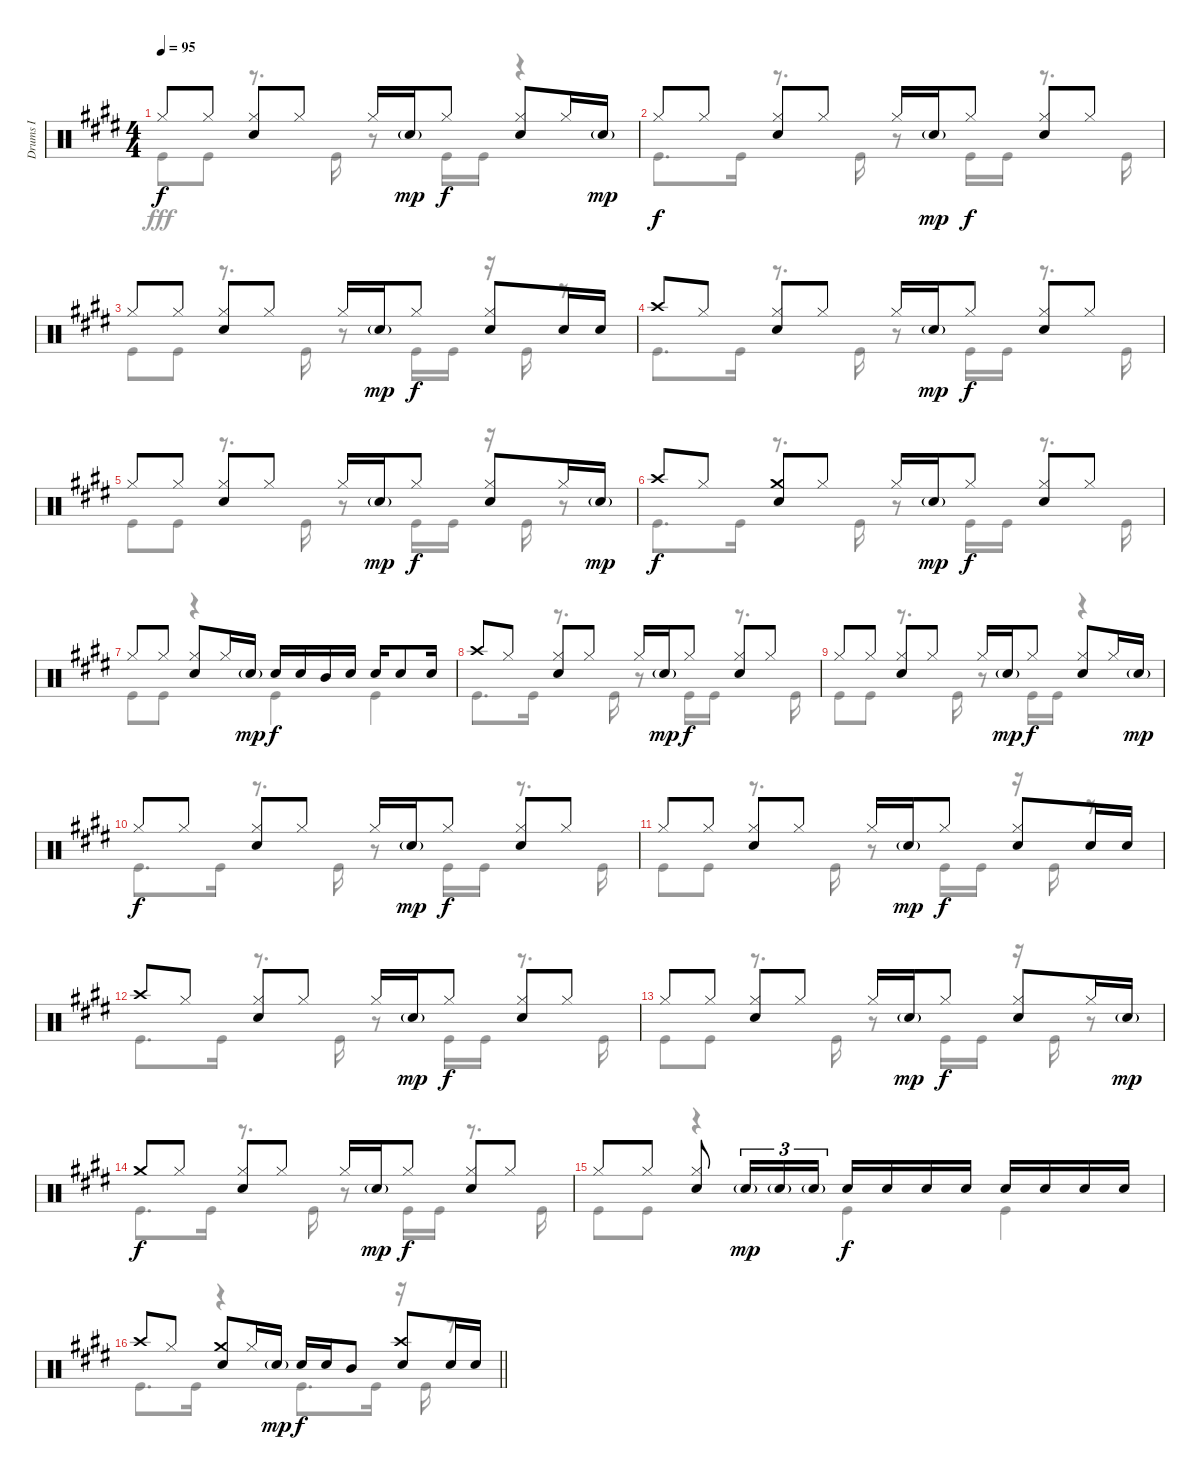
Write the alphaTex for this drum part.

\track ("Drums I" "Drums I") {instrument percussion}
\staff {score}
\articulation defaults
\voice
\ts (4 4)
\tempo 95
\clef neutral
\ks e "Hi-Hat (closed)".8{dy f} "Hi-Hat (closed)".8
("Hi-Hat (closed)" "Snare (hit) 2").8 "Hi-Hat (closed)".8 "Hi-Hat (closed)".16 "Snare (hit) 2"{g}.16{dy mp} "Hi-Hat (closed)".8{dy f} ("Snare (hit) 2" "Hi-Hat (closed)").8 "Hi-Hat (closed)".16 "Snare (hit) 2"{g}.16{dy mp} |
"Hi-Hat (closed)".8{dy f} "Hi-Hat (closed)".8 ("Hi-Hat (closed)" "Snare (hit) 2").8 "Hi-Hat (closed)".8 "Hi-Hat (closed)".16 "Snare (hit) 2"{g}.16{dy mp} "Hi-Hat (closed)".8{dy f} ("Snare (hit) 2" "Hi-Hat (closed)").8 "Hi-Hat (closed)".8 |
"Hi-Hat (closed)".8 "Hi-Hat (closed)".8 ("Hi-Hat (closed)" "Snare (hit) 2").8 "Hi-Hat (closed)".8 "Hi-Hat (closed)".16 "Snare (hit) 2"{g}.16{dy mp} "Hi-Hat (closed)".8{dy f} ("Snare (hit) 2" "Hi-Hat (closed)").8 "Snare (hit) 2".16 "Snare (hit) 2".16 |
"Crash high (hit)".8 "Hi-Hat (closed)".8 ("Hi-Hat (closed)" "Snare (hit) 2").8 "Hi-Hat (closed)".8 "Hi-Hat (closed)".16 "Snare (hit) 2"{g}.16{dy mp} "Hi-Hat (closed)".8{dy f} ("Snare (hit) 2" "Hi-Hat (closed)").8 "Hi-Hat (closed)".8 |
"Hi-Hat (closed)".8 "Hi-Hat (closed)".8 ("Hi-Hat (closed)" "Snare (hit) 2").8 "Hi-Hat (closed)".8 "Hi-Hat (closed)".16 "Snare (hit) 2"{g}.16{dy mp} "Hi-Hat (closed)".8{dy f} ("Snare (hit) 2" "Hi-Hat (closed)").8 "Hi-Hat (closed)".16 "Snare (hit) 2"{g}.16{dy mp} |
"Crash high (hit)".8{dy f} "Hi-Hat (closed)".8 ("Crash medium (hit)" "Snare (hit) 2").8 "Hi-Hat (closed)".8 "Hi-Hat (closed)".16 "Snare (hit) 2"{g}.16{dy mp} "Hi-Hat (closed)".8{dy f} ("Snare (hit) 2" "Hi-Hat (closed)").8 "Hi-Hat (closed)".8 |
"Hi-Hat (closed)".8 "Hi-Hat (closed)".8 ("Hi-Hat (closed)" "Snare (hit) 2").8 "Hi-Hat (closed)".16 "Snare (hit) 2"{g}.16{dy mp} "Snare (hit) 2".16{dy f} "Snare (hit) 2".16 "Mid Tom (hit)".16 "Snare (hit) 2".16 "Snare (hit) 2".16 "Snare (hit) 2".8 "Snare (hit) 2".16 |
"Crash high (hit)".8 "Hi-Hat (closed)".8 ("Hi-Hat (closed)" "Snare (hit) 2").8 "Hi-Hat (closed)".8 "Hi-Hat (closed)".16 "Snare (hit) 2"{g}.16{dy mp} "Hi-Hat (closed)".8{dy f} ("Snare (hit) 2" "Hi-Hat (closed)").8 "Hi-Hat (closed)".8 |
"Hi-Hat (closed)".8 "Hi-Hat (closed)".8 ("Hi-Hat (closed)" "Snare (hit) 2").8 "Hi-Hat (closed)".8 "Hi-Hat (closed)".16 "Snare (hit) 2"{g}.16{dy mp} "Hi-Hat (closed)".8{dy f} ("Snare (hit) 2" "Hi-Hat (closed)").8 "Hi-Hat (closed)".16 "Snare (hit) 2"{g}.16{dy mp} |
"Hi-Hat (closed)".8{dy f} "Hi-Hat (closed)".8 ("Hi-Hat (closed)" "Snare (hit) 2").8 "Hi-Hat (closed)".8 "Hi-Hat (closed)".16 "Snare (hit) 2"{g}.16{dy mp} "Hi-Hat (closed)".8{dy f} ("Snare (hit) 2" "Hi-Hat (closed)").8 "Hi-Hat (closed)".8 |
"Hi-Hat (closed)".8 "Hi-Hat (closed)".8 ("Hi-Hat (closed)" "Snare (hit) 2").8 "Hi-Hat (closed)".8 "Hi-Hat (closed)".16 "Snare (hit) 2"{g}.16{dy mp} "Hi-Hat (closed)".8{dy f} ("Hi-Hat (closed)" "Snare (hit) 2").8 "Snare (hit) 2".16 "Snare (hit) 2".16 |
"Crash high (hit)".8 "Hi-Hat (closed)".8 ("Hi-Hat (closed)" "Snare (hit) 2").8 "Hi-Hat (closed)".8 "Hi-Hat (closed)".16 "Snare (hit) 2"{g}.16{dy mp} "Hi-Hat (closed)".8{dy f} ("Hi-Hat (closed)" "Snare (hit) 2").8 "Hi-Hat (closed)".8 |
"Hi-Hat (closed)".8 "Hi-Hat (closed)".8 ("Hi-Hat (closed)" "Snare (hit) 2").8 "Hi-Hat (closed)".8 "Hi-Hat (closed)".16 "Snare (hit) 2"{g}.16{dy mp} "Hi-Hat (closed)".8{dy f} ("Hi-Hat (closed)" "Snare (hit) 2").8 "Hi-Hat (closed)".16 "Snare (hit) 2"{g}.16{dy mp} |
"Crash medium (hit)".8{dy f} "Hi-Hat (closed)".8 ("Hi-Hat (closed)" "Snare (hit) 2").8 "Hi-Hat (closed)".8 "Hi-Hat (closed)".16 "Snare (hit) 2"{g}.16{dy mp} "Hi-Hat (closed)".8{dy f} ("Hi-Hat (closed)" "Snare (hit) 2").8 "Hi-Hat (closed)".8 |
"Hi-Hat (closed)".8 "Hi-Hat (closed)".8 ("Hi-Hat (closed)" "Snare (hit) 2").8 "Snare (hit) 2"{g}.16{tu (3 2) dy mp} "Snare (hit) 2"{g}.16{tu (3 2)} "Snare (hit) 2"{g}.16{tu (3 2)} "Snare (hit) 2".16{dy f} "Snare (hit) 2".16 "Snare (hit) 2".16 "Snare (hit) 2".16 "Snare (hit) 2".16 "Snare (hit) 2".16 "Snare (hit) 2".16 "Snare (hit) 2".16 |
\barLineRight lightlight "Crash high (hit)".8 "Hi-Hat (closed)".8
("Crash medium (hit)" "Snare (hit) 2").8 "Hi-Hat (closed)".16 "Snare (hit) 2"{g}.16{dy mp} "Snare (hit) 2".16{dy f} "Snare (hit) 2".16 "Mid Tom (hit)".8 ("Crash high (hit)" "Snare (hit) 2").8 "Snare (hit) 2".16 "Snare (hit) 2".16
\voice
\clef neutral
\ottava regular
\simile none
\ks e "Kick (hit)".8{dy fff} "Kick (hit)".8
r.8{d} "Kick (hit)".16 r.8 "Kick (hit)".16 "Kick (hit)".16 r.4 |
"Kick (hit)".8{d} "Kick (hit)".16 r.8{d} "Kick (hit)".16 r.8 "Kick (hit)".16 "Kick (hit)".16 r.8{d} "Kick (hit)".16 |
"Kick (hit)".8 "Kick (hit)".8 r.8{d} "Kick (hit)".16 r.8 "Kick (hit)".16 "Kick (hit)".16 r.16 "Kick (hit)".16 r.8 |
"Kick (hit)".8{d} "Kick (hit)".16 r.8{d} "Kick (hit)".16 r.8 "Kick (hit)".16 "Kick (hit)".16 r.8{d} "Kick (hit)".16 |
"Kick (hit)".8 "Kick (hit)".8 r.8{d} "Kick (hit)".16 r.8 "Kick (hit)".16 "Kick (hit)".16 r.16 "Kick (hit)".16 r.8 |
"Kick (hit)".8{d} "Kick (hit)".16 r.8{d} "Kick (hit)".16 r.8 "Kick (hit)".16 "Kick (hit)".16 r.8{d} "Kick (hit)".16 |
"Kick (hit)".8 "Kick (hit)".8 r.4 "Kick (hit)".4 "Kick (hit)".4 |
"Kick (hit)".8{d} "Kick (hit)".16 r.8{d} "Kick (hit)".16 r.8 "Kick (hit)".16 "Kick (hit)".16 r.8{d} "Kick (hit)".16 |
"Kick (hit)".8 "Kick (hit)".8 r.8{d} "Kick (hit)".16 r.8 "Kick (hit)".16 "Kick (hit)".16 r.4 |
"Kick (hit)".8{d} "Kick (hit)".16 r.8{d} "Kick (hit)".16 r.8 "Kick (hit)".16 "Kick (hit)".16 r.8{d} "Kick (hit)".16 |
"Kick (hit)".8 "Kick (hit)".8 r.8{d} "Kick (hit)".16 r.8 "Kick (hit)".16 "Kick (hit)".16 r.16 "Kick (hit)".16 r.8 |
"Kick (hit)".8{d} "Kick (hit)".16 r.8{d} "Kick (hit)".16 r.8 "Kick (hit)".16 "Kick (hit)".16 r.8{d} "Kick (hit)".16 |
"Kick (hit)".8 "Kick (hit)".8 r.8{d} "Kick (hit)".16 r.8 "Kick (hit)".16 "Kick (hit)".16 r.16 "Kick (hit)".16 r.8 |
"Kick (hit)".8{d} "Kick (hit)".16 r.8{d} "Kick (hit)".16 r.8 "Kick (hit)".16 "Kick (hit)".16 r.8{d} "Kick (hit)".16 |
"Kick (hit)".8 "Kick (hit)".8 r.4 "Kick (hit)".4 "Kick (hit)".4 |
\barLineRight lightlight "Kick (hit)".8{d} "Kick (hit)".16
r.4 "Kick (hit)".8{d} "Kick (hit)".16 r.16 "Kick (hit)".16 r.8
